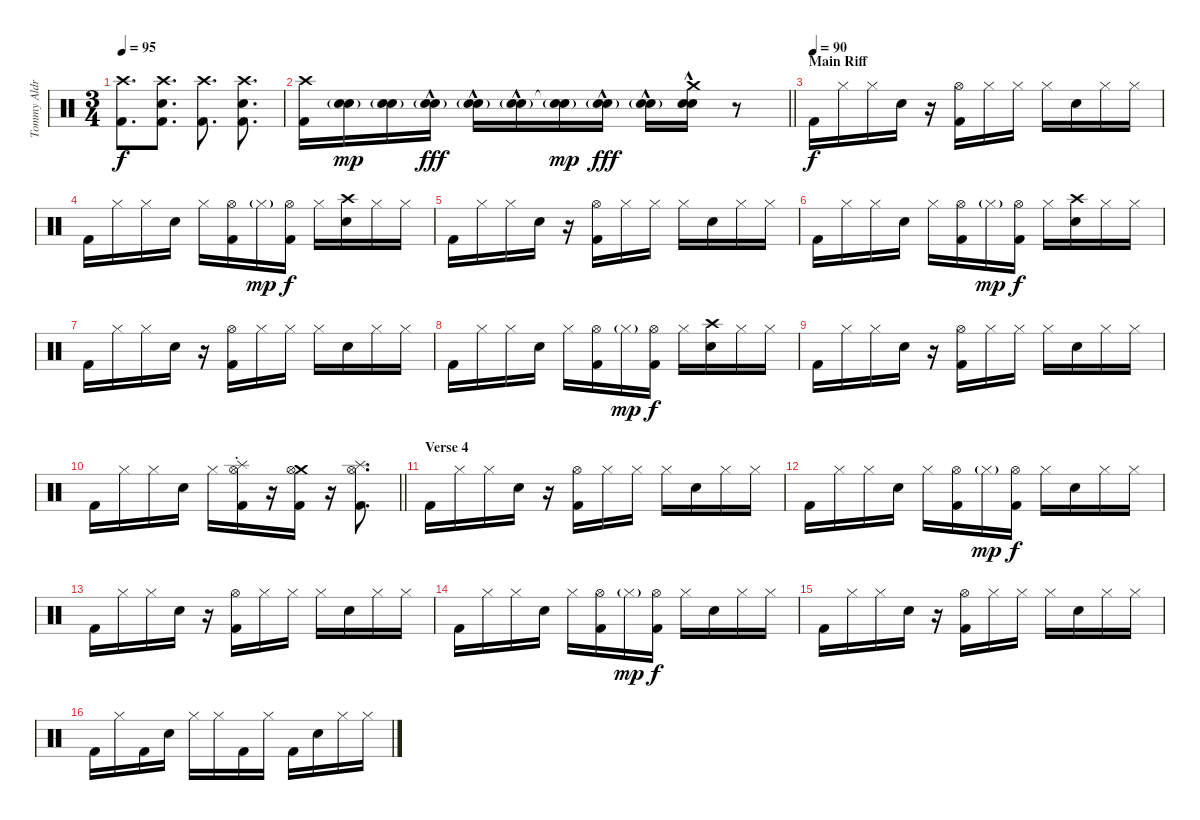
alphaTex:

\track ("Tommy Aldridge" "Tommy Aldr") {instrument percussion}
\staff {score}
\articulation defaults
\ts (3 4)
\tempo 95
\clef neutral
\ks c
("Crash high (hit)" "Kick (hit) 2").8{d dy f} ("Kick (hit) 2" "Crash high (hit)" "Snare (hit) 2").8{d} ("Crash high (hit)" "Kick (hit) 2").8{d} ("Kick (hit) 2" "Crash high (hit)" "Snare (hit) 2").8{d} |
\barLineRight lightlight
("Crash high (hit)" "Kick (hit) 2").16 ("Snare (hit) 2"{g} "Electric Snare (hit)").16{dy mp} ("Snare (hit) 2"{g} "Electric Snare (hit)").16 ("Snare (hit) 2"{g} "Electric Snare (hit)"{hac}).16{dy fff} ("Snare (hit) 2"{g} "Electric Snare (hit)"{hac}).16 ("Snare (hit) 2"{g} "Electric Snare (hit)"{hac}).16 ("Snare (hit)"{t} "Snare (hit) 2"{g}).16{dy mp} ("Snare (hit) 2"{g} "Electric Snare (hit)"{hac}).16{dy fff} ("Snare (hit) 2"{g} "Electric Snare (hit)"{hac}).16 ("Snare (hit) 2" "Crash medium (hit)"{hac} "Electric Snare (hit)"{hac}).16 r.8 |
\section ("" "Main Riff")
\tempo (90)
"Kick (hit) 2".16{dy f} "Hi-Hat (closed)".16 "Hi-Hat (closed)".16 "Snare (hit) 2".16 r.16 ("Hi-Hat (open)" "Kick (hit) 2").16 "Hi-Hat (closed)".16 "Hi-Hat (closed)".16 "Hi-Hat (closed)".16 "Snare (hit) 2".16 "Hi-Hat (closed)".16 "Hi-Hat (closed)".16 |
"Kick (hit) 2".16 "Hi-Hat (closed)".16 "Hi-Hat (closed)".16 "Snare (hit) 2".16 "Hi-Hat (closed)".16 ("Hi-Hat (open)" "Kick (hit) 2").16 "Hi-Hat (closed)"{g}.16{dy mp} ("Hi-Hat (open)" "Kick (hit) 2").16{dy f} "Hi-Hat (closed)".16 ("Crash high (hit)" "Snare (hit) 2").16 "Hi-Hat (closed)".16 "Hi-Hat (closed)".16 |
"Kick (hit) 2".16 "Hi-Hat (closed)".16 "Hi-Hat (closed)".16 "Snare (hit) 2".16 r.16 ("Hi-Hat (open)" "Kick (hit) 2").16 "Hi-Hat (closed)".16 "Hi-Hat (closed)".16 "Hi-Hat (closed)".16 "Snare (hit) 2".16 "Hi-Hat (closed)".16 "Hi-Hat (closed)".16 |
"Kick (hit) 2".16 "Hi-Hat (closed)".16 "Hi-Hat (closed)".16 "Snare (hit) 2".16 "Hi-Hat (closed)".16 ("Hi-Hat (open)" "Kick (hit) 2").16 "Hi-Hat (closed)"{g}.16{dy mp} ("Hi-Hat (open)" "Kick (hit) 2").16{dy f} "Hi-Hat (closed)".16 ("Crash high (hit)" "Snare (hit) 2").16 "Hi-Hat (closed)".16 "Hi-Hat (closed)".16 |
"Kick (hit) 2".16 "Hi-Hat (closed)".16 "Hi-Hat (closed)".16 "Snare (hit) 2".16 r.16 ("Hi-Hat (open)" "Kick (hit) 2").16 "Hi-Hat (closed)".16 "Hi-Hat (closed)".16 "Hi-Hat (closed)".16 "Snare (hit) 2".16 "Hi-Hat (closed)".16 "Hi-Hat (closed)".16 |
"Kick (hit) 2".16 "Hi-Hat (closed)".16 "Hi-Hat (closed)".16 "Snare (hit) 2".16 "Hi-Hat (closed)".16 ("Hi-Hat (open)" "Kick (hit) 2").16 "Hi-Hat (closed)"{g}.16{dy mp} ("Hi-Hat (open)" "Kick (hit) 2").16{dy f} "Hi-Hat (closed)".16 ("Crash high (hit)" "Snare (hit) 2").16 "Hi-Hat (closed)".16 "Hi-Hat (closed)".16 |
"Kick (hit) 2".16 "Hi-Hat (closed)".16 "Hi-Hat (closed)".16 "Snare (hit) 2".16 r.16 ("Hi-Hat (open)" "Kick (hit) 2").16 "Hi-Hat (closed)".16 "Hi-Hat (closed)".16 "Hi-Hat (closed)".16 "Snare (hit) 2".16 "Hi-Hat (closed)".16 "Hi-Hat (closed)".16 |
\barLineRight lightlight "Kick (hit) 2".16 "Hi-Hat (closed)".16 "Hi-Hat (closed)".16 "Snare (hit) 2".16 "Hi-Hat (closed)".16
("Splash (hit)" "Hi-Hat (open)"{st} "Kick (hit) 2").16 r.16 ("Crash medium (hit)" "Hi-Hat (open)" "Kick (hit) 2").16 r.16 ("Splash (hit)" "Hi-Hat (open)" "Kick (hit) 2").8{d} |
\section ("" "Verse 4")
"Kick (hit) 2".16 "Hi-Hat (closed)".16 "Hi-Hat (closed)".16 "Snare (hit) 2".16 r.16 ("Hi-Hat (open)" "Kick (hit) 2").16 "Hi-Hat (closed)".16 "Hi-Hat (closed)".16 "Hi-Hat (closed)".16 "Snare (hit) 2".16 "Hi-Hat (closed)".16 "Hi-Hat (closed)".16 |
"Kick (hit) 2".16 "Hi-Hat (closed)".16 "Hi-Hat (closed)".16 "Snare (hit) 2".16 "Hi-Hat (closed)".16 ("Hi-Hat (open)" "Kick (hit) 2").16 "Hi-Hat (closed)"{g}.16{dy mp} ("Hi-Hat (open)" "Kick (hit) 2").16{dy f} "Hi-Hat (closed)".16 "Snare (hit) 2".16 "Hi-Hat (closed)".16 "Hi-Hat (closed)".16 |
"Kick (hit) 2".16 "Hi-Hat (closed)".16 "Hi-Hat (closed)".16 "Snare (hit) 2".16 r.16 ("Hi-Hat (open)" "Kick (hit) 2").16 "Hi-Hat (closed)".16 "Hi-Hat (closed)".16 "Hi-Hat (closed)".16 "Snare (hit) 2".16 "Hi-Hat (closed)".16 "Hi-Hat (closed)".16 |
"Kick (hit) 2".16 "Hi-Hat (closed)".16 "Hi-Hat (closed)".16 "Snare (hit) 2".16 "Hi-Hat (closed)".16 ("Hi-Hat (open)" "Kick (hit) 2").16 "Hi-Hat (closed)"{g}.16{dy mp} ("Hi-Hat (open)" "Kick (hit) 2").16{dy f} "Hi-Hat (closed)".16 "Snare (hit) 2".16 "Hi-Hat (closed)".16 "Hi-Hat (closed)".16 |
"Kick (hit) 2".16 "Hi-Hat (closed)".16 "Hi-Hat (closed)".16 "Snare (hit) 2".16 r.16 ("Hi-Hat (open)" "Kick (hit) 2").16 "Hi-Hat (closed)".16 "Hi-Hat (closed)".16 "Hi-Hat (closed)".16 "Snare (hit) 2".16 "Hi-Hat (closed)".16 "Hi-Hat (closed)".16 |
"Kick (hit) 2".16 "Hi-Hat (closed)".16 "Kick (hit) 2".16 "Snare (hit) 2".16 "Hi-Hat (closed)".16 "Hi-Hat (closed)".16 "Kick (hit) 2".16 "Hi-Hat (closed)".16 "Kick (hit) 2".16 "Snare (hit) 2".16 "Hi-Hat (closed)".16 "Hi-Hat (closed)".16
